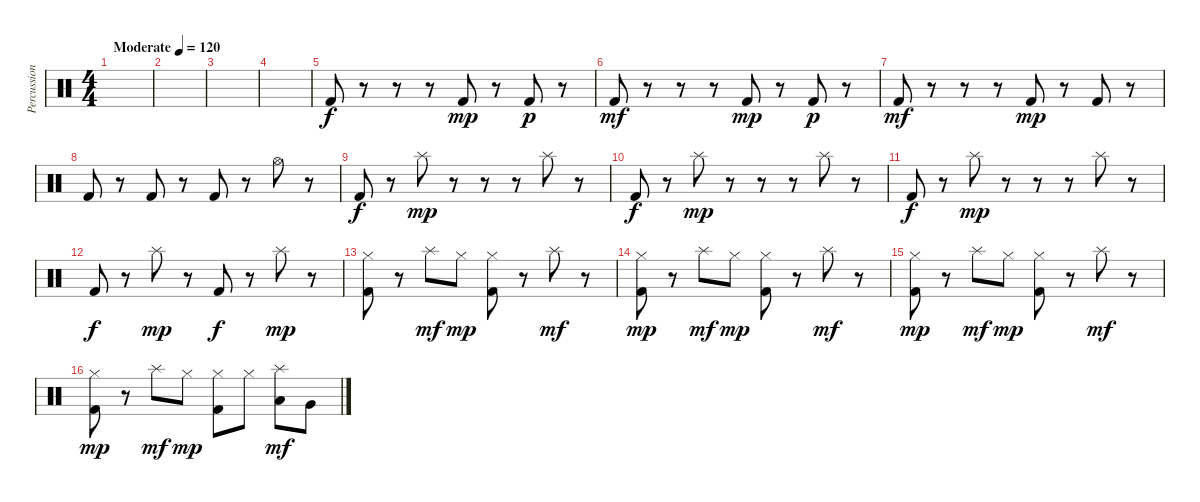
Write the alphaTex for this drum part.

\track ("Percussion" "Percussion") {instrument percussion}
\staff {score}
\articulation defaults
\ts (4 4)
\tempo (120 "Moderate")
\clef neutral
\ks c
|
|
|
|
"Kick (hit) 2".8 r.8 r.8 r.8 "Kick (hit) 2".8{dy mp} r.8 "Kick (hit) 2".8{dy p} r.8 |
"Kick (hit) 2".8{dy mf} r.8 r.8 r.8 "Kick (hit) 2".8{dy mp} r.8 "Kick (hit) 2".8{dy p} r.8 |
"Kick (hit) 2".8{dy mf} r.8 r.8 r.8 "Kick (hit) 2".8{dy mp} r.8 "Kick (hit) 2".8 r.8 |
"Kick (hit) 2".8 r.8 "Kick (hit) 2".8 r.8 "Kick (hit) 2".8 r.8 "Hi-Hat (open)".8 r.8 |
"Kick (hit) 2".8{dy f} r.8 "Splash (hit)".8{dy mp} r.8 r.8 r.8 "Splash (hit)".8 r.8 |
"Kick (hit) 2".8{dy f} r.8 "Splash (hit)".8{dy mp} r.8 r.8 r.8 "Splash (hit)".8 r.8 |
"Kick (hit) 2".8{dy f} r.8 "Splash (hit)".8{dy mp} r.8 r.8 r.8 "Splash (hit)".8 r.8 |
"Kick (hit) 2".8{dy f} r.8 "Splash (hit)".8{dy mp} r.8 "Kick (hit) 2".8{dy f} r.8 "Splash (hit)".8{dy mp} r.8 |
("Hi-Hat (closed)" "Kick (hit) 2").8 r.8 "Splash (hit)".8{dy mf} "Hi-Hat (closed)".8{dy mp} ("Hi-Hat (closed)" "Kick (hit) 2").8 r.8 "Splash (hit)".8{dy mf} r.8 |
("Hi-Hat (closed)" "Kick (hit) 2").8{dy mp} r.8 "Splash (hit)".8{dy mf} "Hi-Hat (closed)".8{dy mp} ("Hi-Hat (closed)" "Kick (hit) 2").8 r.8 "Splash (hit)".8{dy mf} r.8 |
("Hi-Hat (closed)" "Kick (hit) 2").8{dy mp} r.8 "Splash (hit)".8{dy mf} "Hi-Hat (closed)".8{dy mp} ("Hi-Hat (closed)" "Kick (hit) 2").8 r.8 "Splash (hit)".8{dy mf} r.8 |
("Hi-Hat (closed)" "Kick (hit) 2").8{dy mp} r.8 "Splash (hit)".8{dy mf} "Hi-Hat (closed)".8{dy mp} ("Hi-Hat (closed)" "Kick (hit) 2").8 "Hi-Hat (closed)".8 ("Low Tom (hit)" "Splash (hit)").8{dy mf} "Very Low Tom (hit)".8
